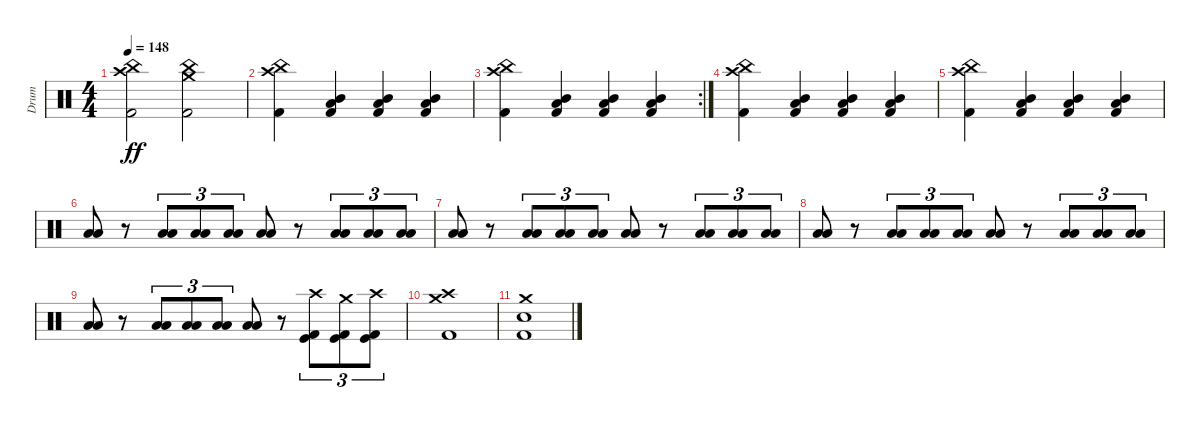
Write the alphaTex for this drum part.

\track ("Drum" "Drum") {instrument percussion}
\staff {score}
\articulation defaults
\ts (4 4)
\tempo 148
\clef neutral
\ks c
("Crash high (hit)" "China (hit)" "Kick (hit) 2").2{dy ff} ("Crash medium (hit)" "China (hit)" "Kick (hit) 2").2 |
("Crash high (hit)" "China (hit)" "Kick (hit) 2").4 ("Low Tom (hit)" "Mid Tom (hit)" "Kick (hit) 2").4 ("Low Tom (hit)" "Mid Tom (hit)" "Kick (hit) 2").4 ("Low Tom (hit)" "Mid Tom (hit)" "Kick (hit) 2").4 |
\rc 2
("Crash high (hit)" "China (hit)" "Kick (hit) 2").4 ("Low Tom (hit)" "Mid Tom (hit)" "Kick (hit) 2").4 ("Low Tom (hit)" "Mid Tom (hit)" "Kick (hit) 2").4 ("Low Tom (hit)" "Mid Tom (hit)" "Kick (hit) 2").4 |
("Crash high (hit)" "China (hit)" "Kick (hit) 2").4 ("Low Tom (hit)" "Mid Tom (hit)" "Kick (hit) 2").4 ("Low Tom (hit)" "Mid Tom (hit)" "Kick (hit) 2").4 ("Low Tom (hit)" "Mid Tom (hit)" "Kick (hit) 2").4 |
("Crash high (hit)" "China (hit)" "Kick (hit) 2").4 ("Low Tom (hit)" "Mid Tom (hit)" "Kick (hit) 2").4 ("Low Tom (hit)" "Mid Tom (hit)" "Kick (hit) 2").4 ("Low Tom (hit)" "Mid Tom (hit)" "Kick (hit) 2").4 |
("Low Tom (hit)" "Low Floor Tom (hit)").8 r.8 ("Low Tom (hit)" "Low Floor Tom (hit)").8{tu (3 2)} ("Low Tom (hit)" "Low Floor Tom (hit)").8{tu (3 2)} ("Low Tom (hit)" "Low Floor Tom (hit)").8{tu (3 2)} ("Low Tom (hit)" "Low Floor Tom (hit)").8 r.8 ("Low Tom (hit)" "Low Floor Tom (hit)").8{tu (3 2)} ("Low Tom (hit)" "Low Floor Tom (hit)").8{tu (3 2)} ("Low Tom (hit)" "Low Floor Tom (hit)").8{tu (3 2)} |
("Low Tom (hit)" "Low Floor Tom (hit)").8 r.8 ("Low Tom (hit)" "Low Floor Tom (hit)").8{tu (3 2)} ("Low Tom (hit)" "Low Floor Tom (hit)").8{tu (3 2)} ("Low Tom (hit)" "Low Floor Tom (hit)").8{tu (3 2)} ("Low Tom (hit)" "Low Floor Tom (hit)").8 r.8 ("Low Tom (hit)" "Low Floor Tom (hit)").8{tu (3 2)} ("Low Tom (hit)" "Low Floor Tom (hit)").8{tu (3 2)} ("Low Tom (hit)" "Low Floor Tom (hit)").8{tu (3 2)} |
("Low Tom (hit)" "Low Floor Tom (hit)").8 r.8 ("Low Tom (hit)" "Low Floor Tom (hit)").8{tu (3 2)} ("Low Tom (hit)" "Low Floor Tom (hit)").8{tu (3 2)} ("Low Tom (hit)" "Low Floor Tom (hit)").8{tu (3 2)} ("Low Tom (hit)" "Low Floor Tom (hit)").8 r.8 ("Low Tom (hit)" "Low Floor Tom (hit)").8{tu (3 2)} ("Low Tom (hit)" "Low Floor Tom (hit)").8{tu (3 2)} ("Low Tom (hit)" "Low Floor Tom (hit)").8{tu (3 2)} |
("Low Tom (hit)" "Low Floor Tom (hit)").8 r.8 ("Low Tom (hit)" "Low Floor Tom (hit)").8{tu (3 2)} ("Low Tom (hit)" "Low Floor Tom (hit)").8{tu (3 2)} ("Low Tom (hit)" "Low Floor Tom (hit)").8{tu (3 2)} ("Low Tom (hit)" "Low Floor Tom (hit)").8 r.8 ("Crash high (hit)" "Kick (hit)" "Kick (hit) 2").8{tu (3 2)} ("Crash medium (hit)" "Kick (hit)" "Kick (hit) 2").8{tu (3 2)} ("Crash high (hit)" "Kick (hit)" "Kick (hit) 2").8{tu (3 2)} |
("Crash high (hit)" "Crash medium (hit)" "Kick (hit) 2").1 |
("Crash medium (hit)" "Snare (hit) 2" "Kick (hit) 2").1
